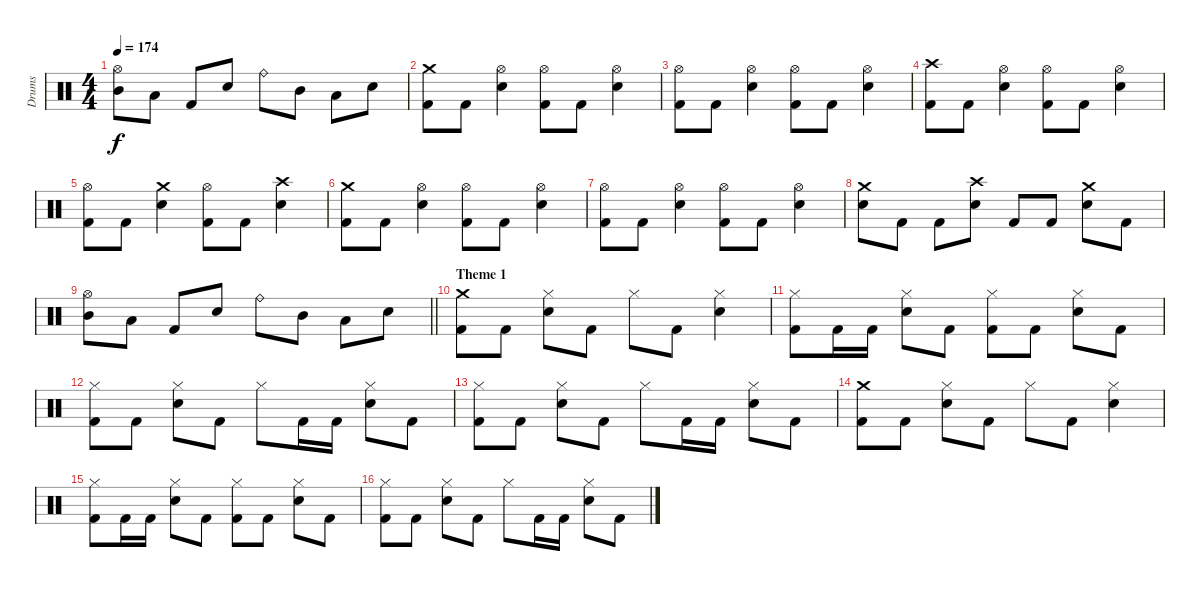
\track ("Drums" "Drums") {instrument percussion}
\staff {score}
\articulation defaults
\ts (4 4)
\tempo 174
\clef neutral
\ks c
("Hi-Hat (open)" "Mid Tom (hit)").8{dy f} "Low Tom (hit)".8 "Kick (hit) 2".8 "Snare (hit) 2".8 "Ride (bell)".8 "Mid Tom (hit)".8 "Low Tom (hit)".8 "Snare (hit) 2".8 |
("Crash medium (hit)" "Kick (hit) 2").8 "Kick (hit) 2".8 ("Hi-Hat (open)" "Snare (hit) 2").4 ("Hi-Hat (open)" "Kick (hit) 2").8 "Kick (hit) 2".8 ("Hi-Hat (open)" "Snare (hit) 2").4 |
("Hi-Hat (open)" "Kick (hit) 2").8 "Kick (hit) 2".8 ("Hi-Hat (open)" "Snare (hit) 2").4 ("Hi-Hat (open)" "Kick (hit) 2").8 "Kick (hit) 2".8 ("Hi-Hat (open)" "Snare (hit) 2").4 |
("Crash high (hit)" "Kick (hit) 2").8 "Kick (hit) 2".8 ("Hi-Hat (open)" "Snare (hit) 2").4 ("Hi-Hat (open)" "Kick (hit) 2").8 "Kick (hit) 2".8 ("Hi-Hat (open)" "Snare (hit) 2").4 |
("Hi-Hat (open)" "Kick (hit) 2").8 "Kick (hit) 2".8 ("Crash medium (hit)" "Snare (hit) 2").4 ("Hi-Hat (open)" "Kick (hit) 2").8 "Kick (hit) 2".8 ("Crash high (hit)" "Snare (hit) 2").4 |
("Crash medium (hit)" "Kick (hit) 2").8 "Kick (hit) 2".8 ("Hi-Hat (open)" "Snare (hit) 2").4 ("Hi-Hat (open)" "Kick (hit) 2").8 "Kick (hit) 2".8 ("Hi-Hat (open)" "Snare (hit) 2").4 |
("Hi-Hat (open)" "Kick (hit) 2").8 "Kick (hit) 2".8 ("Hi-Hat (open)" "Snare (hit) 2").4 ("Hi-Hat (open)" "Kick (hit) 2").8 "Kick (hit) 2".8 ("Hi-Hat (open)" "Snare (hit) 2").4 |
("Crash medium (hit)" "Snare (hit) 2").8 "Kick (hit) 2".8 "Kick (hit) 2".8 ("Crash high (hit)" "Snare (hit) 2").8 "Kick (hit) 2".8 "Kick (hit) 2".8 ("Crash medium (hit)" "Snare (hit) 2").8 "Kick (hit) 2".8 |
\barLineRight lightlight
("Hi-Hat (open)" "Mid Tom (hit)").8 "Low Tom (hit)".8 "Kick (hit) 2".8 "Snare (hit) 2".8 "Ride (bell)".8 "Mid Tom (hit)".8 "Low Tom (hit)".8 "Snare (hit) 2".8 |
\section ("" "Theme 1")
("Crash medium (hit)" "Kick (hit) 2").8 "Kick (hit) 2".8 ("Hi-Hat (closed)" "Snare (hit) 2").8 "Kick (hit) 2".8 "Hi-Hat (closed)".8 "Kick (hit) 2".8 ("Hi-Hat (closed)" "Snare (hit) 2").4 |
("Hi-Hat (closed)" "Kick (hit) 2").8 "Kick (hit) 2".16 "Kick (hit) 2".16 ("Hi-Hat (closed)" "Snare (hit) 2").8 "Kick (hit) 2".8 ("Hi-Hat (closed)" "Kick (hit) 2").8 "Kick (hit) 2".8 ("Hi-Hat (closed)" "Snare (hit) 2").8 "Kick (hit) 2".8 |
("Hi-Hat (closed)" "Kick (hit) 2").8 "Kick (hit) 2".8 ("Hi-Hat (closed)" "Snare (hit) 2").8 "Kick (hit) 2".8 "Hi-Hat (closed)".8 "Kick (hit) 2".16 "Kick (hit) 2".16 ("Hi-Hat (closed)" "Snare (hit) 2").8 "Kick (hit) 2".8 |
("Hi-Hat (closed)" "Kick (hit) 2").8 "Kick (hit) 2".8 ("Hi-Hat (closed)" "Snare (hit) 2").8 "Kick (hit) 2".8 "Hi-Hat (closed)".8 "Kick (hit) 2".16 "Kick (hit) 2".16 ("Hi-Hat (closed)" "Snare (hit) 2").8 "Kick (hit) 2".8 |
("Crash medium (hit)" "Kick (hit) 2").8 "Kick (hit) 2".8 ("Hi-Hat (closed)" "Snare (hit) 2").8 "Kick (hit) 2".8 "Hi-Hat (closed)".8 "Kick (hit) 2".8 ("Hi-Hat (closed)" "Snare (hit) 2").4 |
("Hi-Hat (closed)" "Kick (hit) 2").8 "Kick (hit) 2".16 "Kick (hit) 2".16 ("Hi-Hat (closed)" "Snare (hit) 2").8 "Kick (hit) 2".8 ("Hi-Hat (closed)" "Kick (hit) 2").8 "Kick (hit) 2".8 ("Hi-Hat (closed)" "Snare (hit) 2").8 "Kick (hit) 2".8 |
("Hi-Hat (closed)" "Kick (hit) 2").8 "Kick (hit) 2".8 ("Hi-Hat (closed)" "Snare (hit) 2").8 "Kick (hit) 2".8 "Hi-Hat (closed)".8 "Kick (hit) 2".16 "Kick (hit) 2".16 ("Hi-Hat (closed)" "Snare (hit) 2").8 "Kick (hit) 2".8
